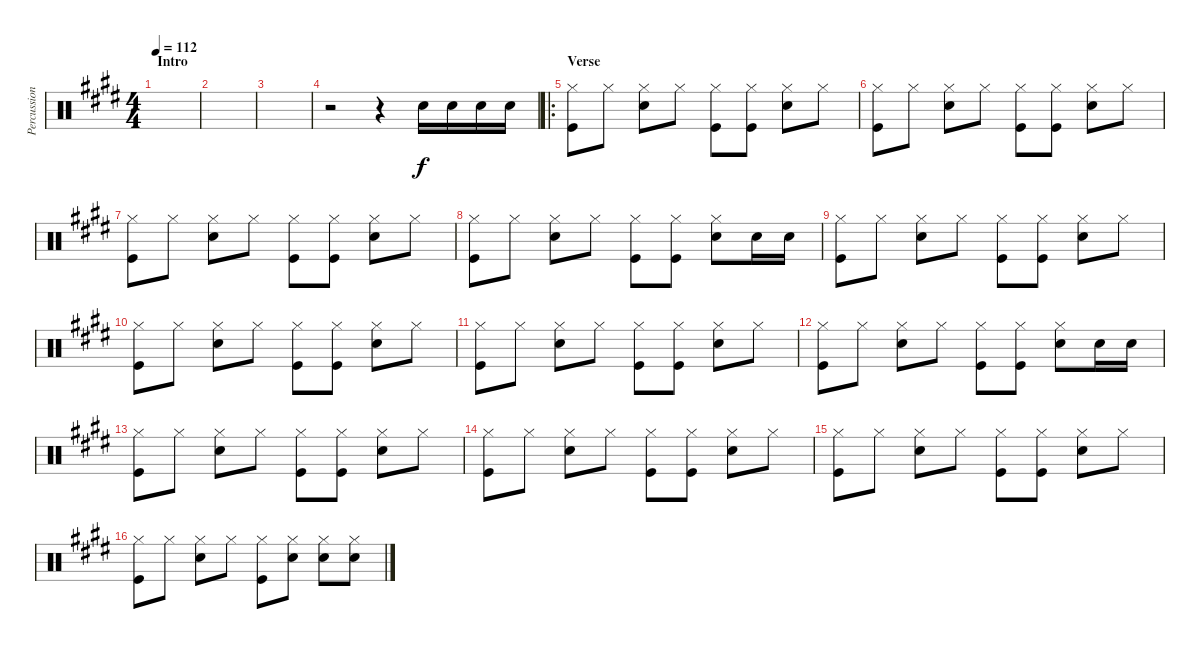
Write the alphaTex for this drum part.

\track ("Percussion" "Percussion") {instrument percussion}
\staff {score}
\articulation defaults
\ts (4 4)
\section ("" "Intro")
\tempo 112
\clef neutral
\ks e
|
|
|
r.2 r.4 "Snare (hit) 2".16 "Snare (hit) 2".16 "Snare (hit) 2".16 "Snare (hit) 2".16 |
\ro
\section ("" "Verse ")
("Hi-Hat (closed)" "Kick (hit)").8 "Hi-Hat (closed)".8 ("Hi-Hat (closed)" "Snare (hit) 2").8 "Hi-Hat (closed)".8 ("Hi-Hat (closed)" "Kick (hit)").8 ("Hi-Hat (closed)" "Kick (hit)").8 ("Hi-Hat (closed)" "Snare (hit) 2").8 "Hi-Hat (closed)".8 |
("Hi-Hat (closed)" "Kick (hit)").8 "Hi-Hat (closed)".8 ("Hi-Hat (closed)" "Snare (hit) 2").8 "Hi-Hat (closed)".8 ("Hi-Hat (closed)" "Kick (hit)").8 ("Hi-Hat (closed)" "Kick (hit)").8 ("Hi-Hat (closed)" "Snare (hit) 2").8 "Hi-Hat (closed)".8 |
("Hi-Hat (closed)" "Kick (hit)").8 "Hi-Hat (closed)".8 ("Hi-Hat (closed)" "Snare (hit) 2").8 "Hi-Hat (closed)".8 ("Hi-Hat (closed)" "Kick (hit)").8 ("Hi-Hat (closed)" "Kick (hit)").8 ("Hi-Hat (closed)" "Snare (hit) 2").8 "Hi-Hat (closed)".8 |
("Hi-Hat (closed)" "Kick (hit)").8 "Hi-Hat (closed)".8 ("Hi-Hat (closed)" "Snare (hit) 2").8 "Hi-Hat (closed)".8 ("Hi-Hat (closed)" "Kick (hit)").8 ("Hi-Hat (closed)" "Kick (hit)").8 ("Hi-Hat (closed)" "Snare (hit) 2").8 "Snare (hit) 2".16 "Snare (hit) 2".16 |
("Hi-Hat (closed)" "Kick (hit)").8 "Hi-Hat (closed)".8 ("Hi-Hat (closed)" "Snare (hit) 2").8 "Hi-Hat (closed)".8 ("Hi-Hat (closed)" "Kick (hit)").8 ("Hi-Hat (closed)" "Kick (hit)").8 ("Hi-Hat (closed)" "Snare (hit) 2").8 "Hi-Hat (closed)".8 |
("Hi-Hat (closed)" "Kick (hit)").8 "Hi-Hat (closed)".8 ("Hi-Hat (closed)" "Snare (hit) 2").8 "Hi-Hat (closed)".8 ("Hi-Hat (closed)" "Kick (hit)").8 ("Hi-Hat (closed)" "Kick (hit)").8 ("Hi-Hat (closed)" "Snare (hit) 2").8 "Hi-Hat (closed)".8 |
("Hi-Hat (closed)" "Kick (hit)").8 "Hi-Hat (closed)".8 ("Hi-Hat (closed)" "Snare (hit) 2").8 "Hi-Hat (closed)".8 ("Hi-Hat (closed)" "Kick (hit)").8 ("Hi-Hat (closed)" "Kick (hit)").8 ("Hi-Hat (closed)" "Snare (hit) 2").8 "Hi-Hat (closed)".8 |
("Hi-Hat (closed)" "Kick (hit)").8 "Hi-Hat (closed)".8 ("Hi-Hat (closed)" "Snare (hit) 2").8 "Hi-Hat (closed)".8 ("Hi-Hat (closed)" "Kick (hit)").8 ("Hi-Hat (closed)" "Kick (hit)").8 ("Hi-Hat (closed)" "Snare (hit) 2").8 "Snare (hit) 2".16 "Snare (hit) 2".16 |
("Hi-Hat (closed)" "Kick (hit)").8 "Hi-Hat (closed)".8 ("Hi-Hat (closed)" "Snare (hit) 2").8 "Hi-Hat (closed)".8 ("Hi-Hat (closed)" "Kick (hit)").8 ("Hi-Hat (closed)" "Kick (hit)").8 ("Hi-Hat (closed)" "Snare (hit) 2").8 "Hi-Hat (closed)".8 |
("Hi-Hat (closed)" "Kick (hit)").8 "Hi-Hat (closed)".8 ("Hi-Hat (closed)" "Snare (hit) 2").8 "Hi-Hat (closed)".8 ("Hi-Hat (closed)" "Kick (hit)").8 ("Hi-Hat (closed)" "Kick (hit)").8 ("Hi-Hat (closed)" "Snare (hit) 2").8 "Hi-Hat (closed)".8 |
("Hi-Hat (closed)" "Kick (hit)").8 "Hi-Hat (closed)".8 ("Hi-Hat (closed)" "Snare (hit) 2").8 "Hi-Hat (closed)".8 ("Hi-Hat (closed)" "Kick (hit)").8 ("Hi-Hat (closed)" "Kick (hit)").8 ("Hi-Hat (closed)" "Snare (hit) 2").8 "Hi-Hat (closed)".8 |
("Hi-Hat (closed)" "Kick (hit)").8 "Hi-Hat (closed)".8 ("Hi-Hat (closed)" "Snare (hit) 2").8 "Hi-Hat (closed)".8 ("Hi-Hat (closed)" "Kick (hit)").8 ("Hi-Hat (closed)" "Snare (hit) 2").8 ("Hi-Hat (closed)" "Snare (hit) 2").8 ("Hi-Hat (closed)" "Snare (hit) 2").8
